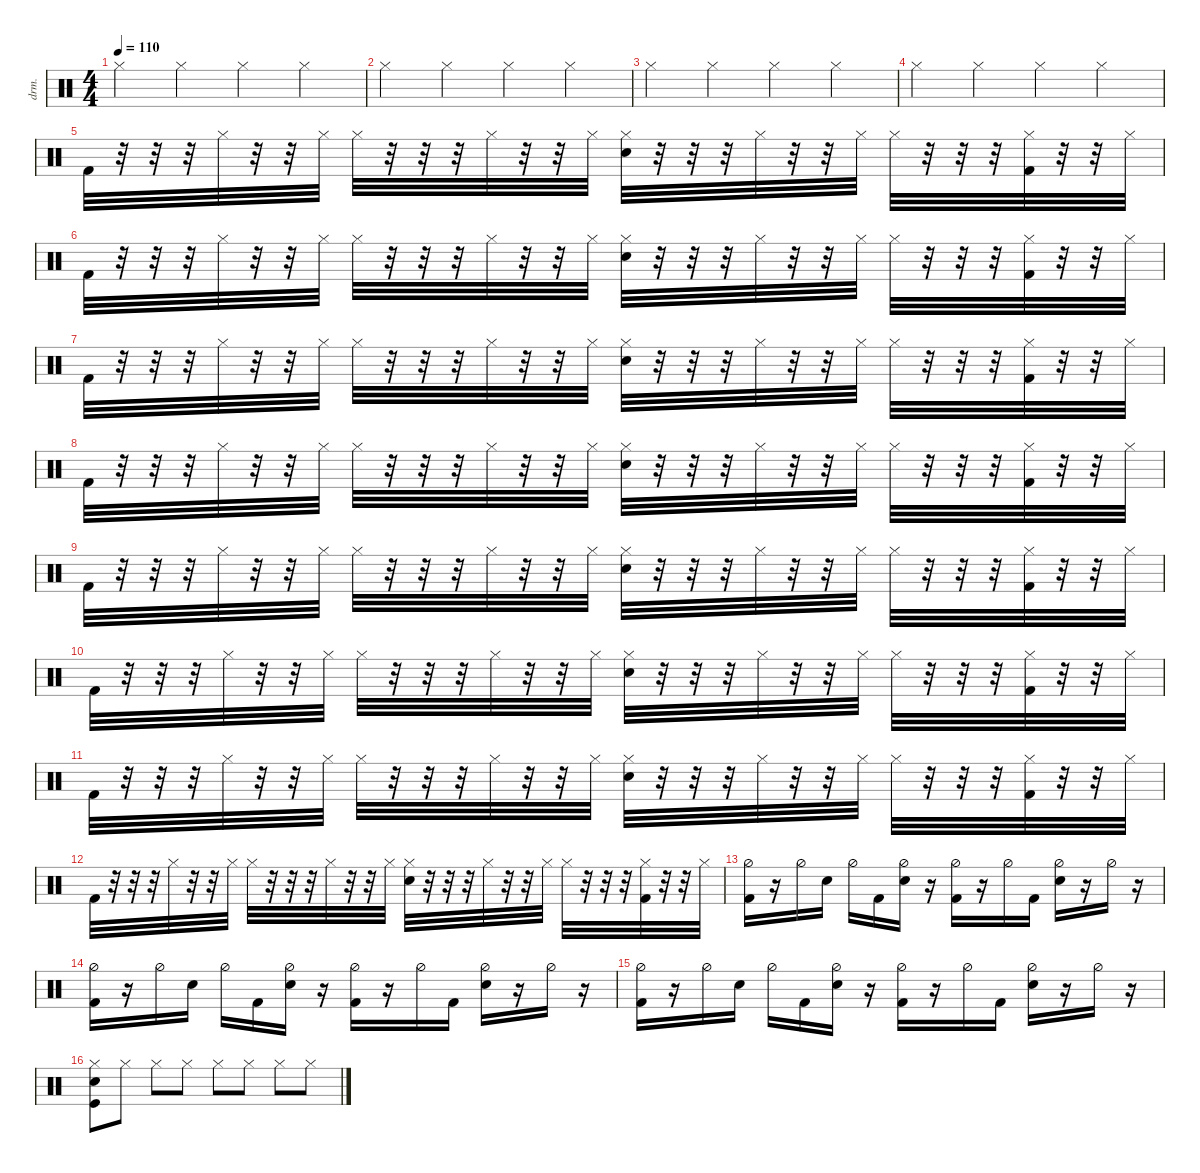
\defaultSystemsLayout 4
\hideDynamics
\bracketExtendMode nobrackets
\otherSystemsTrackNameOrientation horizontal
\track ("Drumkit" "drm.") {instrument percussion}
\staff {score}
\articulation defaults
\ts (4 4)
\tempo 110
\clef neutral
\ks c "Hi-Hat (closed)".4{dy mf beam Down} "Hi-Hat (closed)".4{beam Down} "Hi-Hat (closed)".4{beam Down} "Hi-Hat (closed)".4{beam Down}
|
"Hi-Hat (closed)".4{beam Down} "Hi-Hat (closed)".4{beam Down} "Hi-Hat (closed)".4{beam Down} "Hi-Hat (closed)".4{beam Down} |
"Hi-Hat (closed)".4{beam Down} "Hi-Hat (closed)".4{beam Down} "Hi-Hat (closed)".4{beam Down} "Hi-Hat (closed)".4{beam Down} |
"Hi-Hat (closed)".4{beam Down} "Hi-Hat (closed)".4{beam Down} "Hi-Hat (closed)".4{beam Down} "Hi-Hat (closed)".4{beam Down} |
"Kick (hit) 2".32{beam Down} r.32{beam Down} r.32{beam Down} r.32{beam Down} "Hi-Hat (closed)".32{beam Down} r.32{beam Down} r.32{beam Down} "Hi-Hat (closed)".32{beam Down} "Hi-Hat (closed)".32{beam Down} r.32{beam Down} r.32{beam Down} r.32{beam Down} "Hi-Hat (closed)".32{beam Down} r.32{beam Down} r.32{beam Down} "Hi-Hat (closed)".32{beam Down} ("Snare (hit) 2" "Hi-Hat (closed)").32{beam Down} r.32{beam Down} r.32{beam Down} r.32{beam Down} "Hi-Hat (closed)".32{beam Down} r.32{beam Down} r.32{beam Down} "Hi-Hat (closed)".32{beam Down} "Hi-Hat (closed)".32{beam Down} r.32{beam Down} r.32{beam Down} r.32{beam Down} ("Hi-Hat (closed)" "Kick (hit) 2").32{beam Down} r.32{beam Down} r.32{beam Down} "Hi-Hat (closed)".32{beam Down} |
"Kick (hit) 2".32{beam Down} r.32{beam Down} r.32{beam Down} r.32{beam Down} "Hi-Hat (closed)".32{beam Down} r.32{beam Down} r.32{beam Down} "Hi-Hat (closed)".32{beam Down} "Hi-Hat (closed)".32{beam Down} r.32{beam Down} r.32{beam Down} r.32{beam Down} "Hi-Hat (closed)".32{beam Down} r.32{beam Down} r.32{beam Down} "Hi-Hat (closed)".32{beam Down} ("Snare (hit) 2" "Hi-Hat (closed)").32{beam Down} r.32{beam Down} r.32{beam Down} r.32{beam Down} "Hi-Hat (closed)".32{beam Down} r.32{beam Down} r.32{beam Down} "Hi-Hat (closed)".32{beam Down} "Hi-Hat (closed)".32{beam Down} r.32{beam Down} r.32{beam Down} r.32{beam Down} ("Hi-Hat (closed)" "Kick (hit) 2").32{beam Down} r.32{beam Down} r.32{beam Down} "Hi-Hat (closed)".32{beam Down} |
"Kick (hit) 2".32{beam Down} r.32{beam Down} r.32{beam Down} r.32{beam Down} "Hi-Hat (closed)".32{beam Down} r.32{beam Down} r.32{beam Down} "Hi-Hat (closed)".32{beam Down} "Hi-Hat (closed)".32{beam Down} r.32{beam Down} r.32{beam Down} r.32{beam Down} "Hi-Hat (closed)".32{beam Down} r.32{beam Down} r.32{beam Down} "Hi-Hat (closed)".32{beam Down} ("Snare (hit) 2" "Hi-Hat (closed)").32{beam Down} r.32{beam Down} r.32{beam Down} r.32{beam Down} "Hi-Hat (closed)".32{beam Down} r.32{beam Down} r.32{beam Down} "Hi-Hat (closed)".32{beam Down} "Hi-Hat (closed)".32{beam Down} r.32{beam Down} r.32{beam Down} r.32{beam Down} ("Hi-Hat (closed)" "Kick (hit) 2").32{beam Down} r.32{beam Down} r.32{beam Down} "Hi-Hat (closed)".32{beam Down} |
"Kick (hit) 2".32{beam Down} r.32{beam Down} r.32{beam Down} r.32{beam Down} "Hi-Hat (closed)".32{beam Down} r.32{beam Down} r.32{beam Down} "Hi-Hat (closed)".32{beam Down} "Hi-Hat (closed)".32{beam Down} r.32{beam Down} r.32{beam Down} r.32{beam Down} "Hi-Hat (closed)".32{beam Down} r.32{beam Down} r.32{beam Down} "Hi-Hat (closed)".32{beam Down} ("Snare (hit) 2" "Hi-Hat (closed)").32{beam Down} r.32{beam Down} r.32{beam Down} r.32{beam Down} "Hi-Hat (closed)".32{beam Down} r.32{beam Down} r.32{beam Down} "Hi-Hat (closed)".32{beam Down} "Hi-Hat (closed)".32{beam Down} r.32{beam Down} r.32{beam Down} r.32{beam Down} ("Hi-Hat (closed)" "Kick (hit) 2").32{beam Down} r.32{beam Down} r.32{beam Down} "Hi-Hat (closed)".32{beam Down} |
"Kick (hit) 2".32{beam Down} r.32{beam Down} r.32{beam Down} r.32{beam Down} "Hi-Hat (closed)".32{beam Down} r.32{beam Down} r.32{beam Down} "Hi-Hat (closed)".32{beam Down} "Hi-Hat (closed)".32{beam Down} r.32{beam Down} r.32{beam Down} r.32{beam Down} "Hi-Hat (closed)".32{beam Down} r.32{beam Down} r.32{beam Down} "Hi-Hat (closed)".32{beam Down} ("Snare (hit) 2" "Hi-Hat (closed)").32{beam Down} r.32{beam Down} r.32{beam Down} r.32{beam Down} "Hi-Hat (closed)".32{beam Down} r.32{beam Down} r.32{beam Down} "Hi-Hat (closed)".32{beam Down} "Hi-Hat (closed)".32{beam Down} r.32{beam Down} r.32{beam Down} r.32{beam Down} ("Hi-Hat (closed)" "Kick (hit) 2").32{beam Down} r.32{beam Down} r.32{beam Down} "Hi-Hat (closed)".32{beam Down} |
"Kick (hit) 2".32{beam Down} r.32{beam Down} r.32{beam Down} r.32{beam Down} "Hi-Hat (closed)".32{beam Down} r.32{beam Down} r.32{beam Down} "Hi-Hat (closed)".32{beam Down} "Hi-Hat (closed)".32{beam Down} r.32{beam Down} r.32{beam Down} r.32{beam Down} "Hi-Hat (closed)".32{beam Down} r.32{beam Down} r.32{beam Down} "Hi-Hat (closed)".32{beam Down} ("Snare (hit) 2" "Hi-Hat (closed)").32{beam Down} r.32{beam Down} r.32{beam Down} r.32{beam Down} "Hi-Hat (closed)".32{beam Down} r.32{beam Down} r.32{beam Down} "Hi-Hat (closed)".32{beam Down} "Hi-Hat (closed)".32{beam Down} r.32{beam Down} r.32{beam Down} r.32{beam Down} ("Hi-Hat (closed)" "Kick (hit) 2").32{beam Down} r.32{beam Down} r.32{beam Down} "Hi-Hat (closed)".32{beam Down} |
"Kick (hit) 2".32{beam Down} r.32{beam Down} r.32{beam Down} r.32{beam Down} "Hi-Hat (closed)".32{beam Down} r.32{beam Down} r.32{beam Down} "Hi-Hat (closed)".32{beam Down} "Hi-Hat (closed)".32{beam Down} r.32{beam Down} r.32{beam Down} r.32{beam Down} "Hi-Hat (closed)".32{beam Down} r.32{beam Down} r.32{beam Down} "Hi-Hat (closed)".32{beam Down} ("Snare (hit) 2" "Hi-Hat (closed)").32{beam Down} r.32{beam Down} r.32{beam Down} r.32{beam Down} "Hi-Hat (closed)".32{beam Down} r.32{beam Down} r.32{beam Down} "Hi-Hat (closed)".32{beam Down} "Hi-Hat (closed)".32{beam Down} r.32{beam Down} r.32{beam Down} r.32{beam Down} ("Hi-Hat (closed)" "Kick (hit) 2").32{beam Down} r.32{beam Down} r.32{beam Down} "Hi-Hat (closed)".32{beam Down} |
"Kick (hit) 2".32{beam Down} r.32{beam Down} r.32{beam Down} r.32{beam Down} "Hi-Hat (closed)".32{beam Down} r.32{beam Down} r.32{beam Down} "Hi-Hat (closed)".32{beam Down} "Hi-Hat (closed)".32{beam Down} r.32{beam Down} r.32{beam Down} r.32{beam Down} "Hi-Hat (closed)".32{beam Down} r.32{beam Down} r.32{beam Down} "Hi-Hat (closed)".32{beam Down} ("Snare (hit) 2" "Hi-Hat (closed)").32{beam Down} r.32{beam Down} r.32{beam Down} r.32{beam Down} "Hi-Hat (closed)".32{beam Down} r.32{beam Down} r.32{beam Down} "Hi-Hat (closed)".32{beam Down} "Hi-Hat (closed)".32{beam Down} r.32{beam Down} r.32{beam Down} r.32{beam Down} ("Hi-Hat (closed)" "Kick (hit) 2").32{beam Down} r.32{beam Down} r.32{beam Down} "Hi-Hat (closed)".32{beam Down} |
("Kick (hit) 2" "Hi-Hat (half)").16{beam Down} r.16{beam Down} "Hi-Hat (half)".16{beam Down} "Snare (hit) 2".16{beam Down} "Hi-Hat (half)".16{beam Down} "Kick (hit) 2".16{beam Down} ("Snare (hit) 2" "Hi-Hat (half)").16{beam Down} r.16{beam Down} ("Kick (hit) 2" "Hi-Hat (half)").16{beam Down} r.16{beam Down} "Hi-Hat (half)".16{beam Down} "Kick (hit) 2".16{beam Down} ("Snare (hit) 2" "Hi-Hat (half)").16{beam Down} r.16{beam Down} "Hi-Hat (half)".16{beam Down} r.16{beam Down} |
("Kick (hit) 2" "Hi-Hat (half)").16{beam Down} r.16{beam Down} "Hi-Hat (half)".16{beam Down} "Snare (hit) 2".16{beam Down} "Hi-Hat (half)".16{beam Down} "Kick (hit) 2".16{beam Down} ("Snare (hit) 2" "Hi-Hat (half)").16{beam Down} r.16{beam Down} ("Kick (hit) 2" "Hi-Hat (half)").16{beam Down} r.16{beam Down} "Hi-Hat (half)".16{beam Down} "Kick (hit) 2".16{beam Down} ("Snare (hit) 2" "Hi-Hat (half)").16{beam Down} r.16{beam Down} "Hi-Hat (half)".16{beam Down} r.16{beam Down} |
("Kick (hit) 2" "Hi-Hat (half)").16{beam Down} r.16{beam Down} "Hi-Hat (half)".16{beam Down} "Snare (hit) 2".16{beam Down} "Hi-Hat (half)".16{beam Down} "Kick (hit) 2".16{beam Down} ("Snare (hit) 2" "Hi-Hat (half)").16{beam Down} r.16{beam Down} ("Kick (hit) 2" "Hi-Hat (half)").16{beam Down} r.16{beam Down} "Hi-Hat (half)".16{beam Down} "Kick (hit) 2".16{beam Down} ("Snare (hit) 2" "Hi-Hat (half)").16{beam Down} r.16{beam Down} "Hi-Hat (half)".16{beam Down} r.16{beam Down} |
("Hi-Hat (closed)" "Snare (hit) 2" "Kick (hit)").8{beam Down} "Hi-Hat (closed)".8{beam Down} "Hi-Hat (closed)".8{beam Down} "Hi-Hat (closed)".8{beam Down} "Hi-Hat (closed)".8{beam Down} "Hi-Hat (closed)".8{beam Down} "Hi-Hat (closed)".8{beam Down} "Hi-Hat (closed)".8{beam Down}
